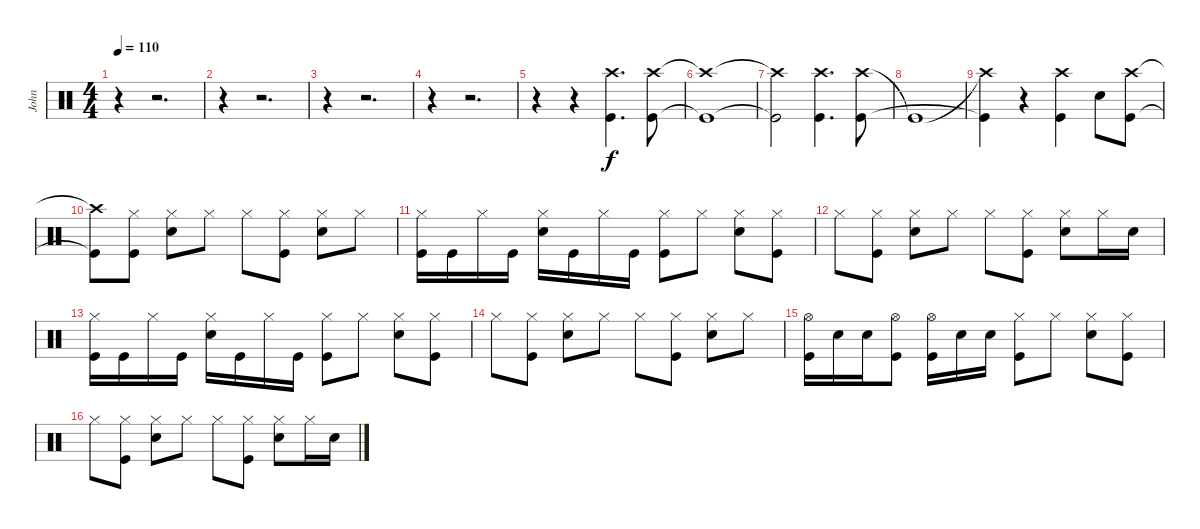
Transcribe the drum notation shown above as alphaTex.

\track ("John" "John") {instrument percussion}
\staff {score}
\articulation defaults
\ts (4 4)
\tempo 110
\clef neutral
\ks c
r.4{dy f} r.2{d} |
r.4 r.2{d} |
r.4 r.2{d} |
r.4 r.2{d} |
r.4 r.4 ("Crash high (hit)" "Kick (hit)").4{d} ("Crash high (hit)" "Kick (hit)").8 |
("Crash high (hit)"{t} "Kick (hit)"{t}).1 |
("Crash high (hit)"{t} "Kick (hit)"{t}).2 ("Crash high (hit)" "Kick (hit)").4{d} ("Crash high (hit)" "Kick (hit)").8 |
"Kick (hit)"{t}.1 |
("Crash high (hit)"{t} "Kick (hit)"{t}).4 r.4 ("Crash high (hit)" "Kick (hit)").4 "Snare (hit) 2".8 ("Crash high (hit)" "Kick (hit)").8 |
("Crash high (hit)"{t} "Kick (hit)"{t}).8 ("Hi-Hat (closed)" "Kick (hit)").8 ("Snare (hit) 2" "Hi-Hat (closed)").8 "Hi-Hat (closed)".8 "Hi-Hat (closed)".8 ("Hi-Hat (closed)" "Kick (hit)").8 ("Hi-Hat (closed)" "Snare (hit) 2").8 "Hi-Hat (closed)".8 |
("Hi-Hat (closed)" "Kick (hit)").16 "Kick (hit)".16 "Hi-Hat (closed)".16 "Kick (hit)".16 ("Hi-Hat (closed)" "Snare (hit) 2").16 "Kick (hit)".16 "Hi-Hat (closed)".16 "Kick (hit)".16 ("Hi-Hat (closed)" "Kick (hit)").8 "Hi-Hat (closed)".8 ("Hi-Hat (closed)" "Snare (hit) 2").8 ("Hi-Hat (closed)" "Kick (hit)").8 |
"Hi-Hat (closed)".8 ("Hi-Hat (closed)" "Kick (hit)").8 ("Snare (hit) 2" "Hi-Hat (closed)").8 "Hi-Hat (closed)".8 "Hi-Hat (closed)".8 ("Hi-Hat (closed)" "Kick (hit)").8 ("Hi-Hat (closed)" "Snare (hit) 2").8 "Hi-Hat (closed)".16 "Snare (hit) 2".16 |
("Hi-Hat (closed)" "Kick (hit)").16 "Kick (hit)".16 "Hi-Hat (closed)".16 "Kick (hit)".16 ("Hi-Hat (closed)" "Snare (hit) 2").16 "Kick (hit)".16 "Hi-Hat (closed)".16 "Kick (hit)".16 ("Hi-Hat (closed)" "Kick (hit)").8 "Hi-Hat (closed)".8 ("Hi-Hat (closed)" "Snare (hit) 2").8 ("Hi-Hat (closed)" "Kick (hit)").8 |
"Hi-Hat (closed)".8 ("Hi-Hat (closed)" "Kick (hit)").8 ("Snare (hit) 2" "Hi-Hat (closed)").8 "Hi-Hat (closed)".8 "Hi-Hat (closed)".8 ("Hi-Hat (closed)" "Kick (hit)").8 ("Hi-Hat (closed)" "Snare (hit) 2").8 "Hi-Hat (closed)".8 |
("Hi-Hat (open)" "Kick (hit)").16 "Snare (hit) 2".16 "Snare (hit) 2".16 ("Kick (hit)" "Hi-Hat (open)").8 ("Hi-Hat (open)" "Kick (hit)").16 "Snare (hit) 2".16 "Snare (hit) 2".16 ("Hi-Hat (closed)" "Kick (hit)").8 "Hi-Hat (closed)".8 ("Hi-Hat (closed)" "Snare (hit) 2").8 ("Kick (hit)" "Hi-Hat (closed)").8 |
"Hi-Hat (closed)".8 ("Hi-Hat (closed)" "Kick (hit)").8 ("Snare (hit) 2" "Hi-Hat (closed)").8 "Hi-Hat (closed)".8 "Hi-Hat (closed)".8 ("Hi-Hat (closed)" "Kick (hit)").8 ("Hi-Hat (closed)" "Snare (hit) 2").8 "Hi-Hat (closed)".16 "Snare (hit) 2".16
